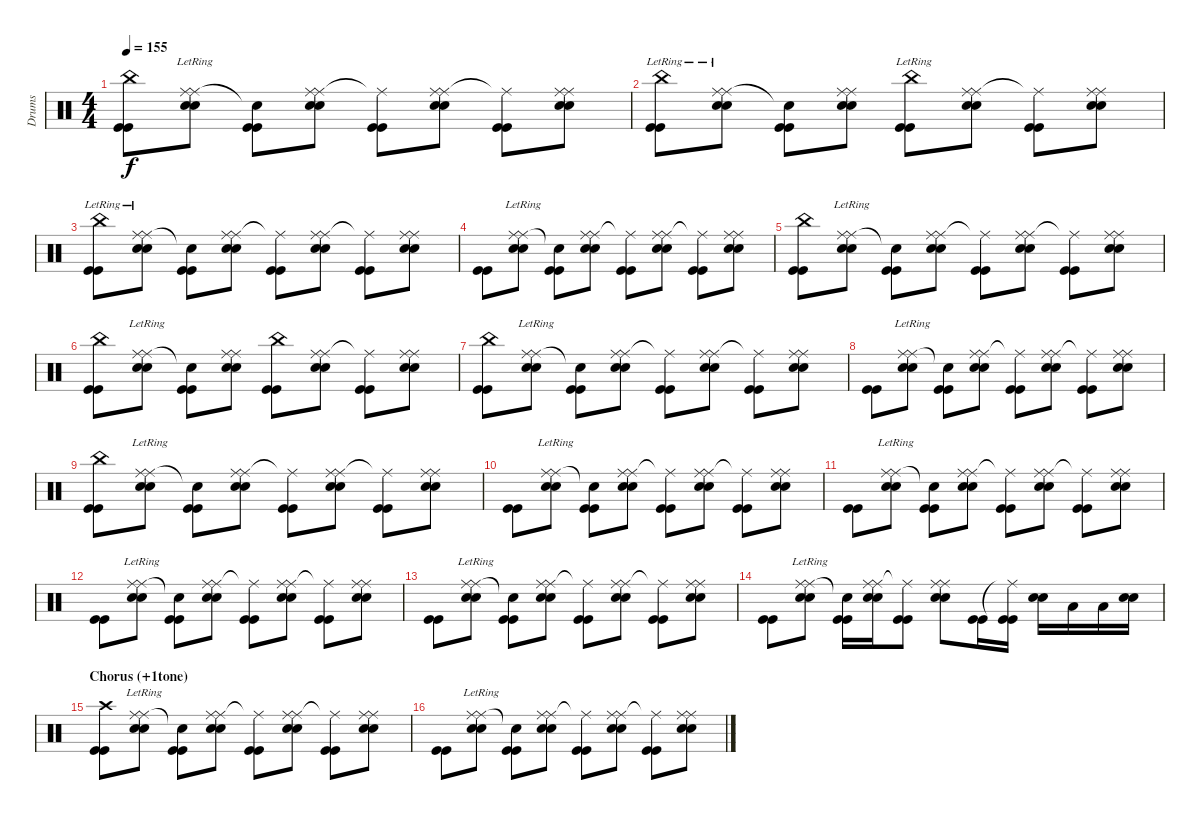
\track ("Drums" "Drums") {instrument percussion}
\staff {score}
\articulation defaults
\ts (4 4)
\tempo 155
\clef neutral
\ks c
("China (hit)" "Kick (hit)" "Kick (hit)").8{dy f} ("Ride (middle)"{lr} "Snare (hit) 2" "Snare (hit) 2" "Ride (middle)").8 ("Snare (hit)"{t} "Kick (hit)" "Kick (hit)").8 ("Ride (middle)" "Snare (hit) 2" "Snare (hit) 2" "Ride (middle)").8 ("Ride (middle)"{t} "Kick (hit)" "Kick (hit)").8 ("Ride (middle)" "Snare (hit) 2" "Snare (hit) 2" "Ride (middle)").8 ("Ride (middle)"{t} "Kick (hit)" "Kick (hit)").8 ("Ride (middle)" "Snare (hit) 2" "Snare (hit) 2" "Ride (middle)").8 |
("China (hit)"{lr} "Kick (hit)" "Kick (hit)").8 ("Ride (middle)"{lr} "Snare (hit) 2" "Snare (hit) 2" "Ride (middle)").8 ("Snare (hit)"{t} "Kick (hit)" "Kick (hit)").8 ("Ride (middle)" "Snare (hit) 2" "Snare (hit) 2" "Ride (middle)").8 ("China (hit)"{lr} "Kick (hit)" "Kick (hit)").8 ("Ride (middle)" "Snare (hit) 2" "Snare (hit) 2" "Ride (middle)").8 ("Ride (middle)"{t} "Kick (hit)" "Kick (hit)").8 ("Ride (middle)" "Snare (hit) 2" "Snare (hit) 2" "Ride (middle)").8 |
("China (hit)"{lr} "Kick (hit)" "Kick (hit)").8 ("Ride (middle)"{lr} "Snare (hit) 2" "Snare (hit) 2" "Ride (middle)").8 ("Snare (hit)"{t} "Kick (hit)" "Kick (hit)").8 ("Ride (middle)" "Snare (hit) 2" "Snare (hit) 2" "Ride (middle)").8 ("Ride (middle)"{t} "Kick (hit)" "Kick (hit)").8 ("Ride (middle)" "Snare (hit) 2" "Snare (hit) 2" "Ride (middle)").8 ("Ride (middle)"{t} "Kick (hit)" "Kick (hit)").8 ("Ride (middle)" "Snare (hit) 2" "Snare (hit) 2" "Ride (middle)").8 |
("Kick (hit)" "Kick (hit)").8 ("Ride (middle)"{lr} "Snare (hit) 2" "Snare (hit) 2" "Ride (middle)").8 ("Snare (hit)"{t} "Kick (hit)" "Kick (hit)").8 ("Ride (middle)" "Snare (hit) 2" "Snare (hit) 2" "Ride (middle)").8 ("Ride (middle)"{t} "Kick (hit)" "Kick (hit)").8 ("Ride (middle)" "Snare (hit) 2" "Snare (hit) 2" "Ride (middle)").8 ("Ride (middle)"{t} "Kick (hit)" "Kick (hit)").8 ("Ride (middle)" "Snare (hit) 2" "Snare (hit) 2" "Ride (middle)").8 |
("China (hit)" "Kick (hit)" "Kick (hit)").8 ("Ride (middle)"{lr} "Snare (hit) 2" "Snare (hit) 2" "Ride (middle)").8 ("Snare (hit)"{t} "Kick (hit)" "Kick (hit)").8 ("Ride (middle)" "Snare (hit) 2" "Snare (hit) 2" "Ride (middle)").8 ("Ride (middle)"{t} "Kick (hit)" "Kick (hit)").8 ("Ride (middle)" "Snare (hit) 2" "Snare (hit) 2" "Ride (middle)").8 ("Ride (middle)"{t} "Kick (hit)" "Kick (hit)").8 ("Ride (middle)" "Snare (hit) 2" "Snare (hit) 2" "Ride (middle)").8 |
("China (hit)" "Kick (hit)" "Kick (hit)").8 ("Ride (middle)"{lr} "Snare (hit) 2" "Snare (hit) 2" "Ride (middle)").8 ("Snare (hit)"{t} "Kick (hit)" "Kick (hit)").8 ("Ride (middle)" "Snare (hit) 2" "Snare (hit) 2" "Ride (middle)").8 ("China (hit)" "Kick (hit)" "Kick (hit)").8 ("Ride (middle)" "Snare (hit) 2" "Snare (hit) 2" "Ride (middle)").8 ("Ride (middle)"{t} "Kick (hit)" "Kick (hit)").8 ("Ride (middle)" "Snare (hit) 2" "Snare (hit) 2" "Ride (middle)").8 |
("China (hit)" "Kick (hit)" "Kick (hit)").8 ("Ride (middle)"{lr} "Snare (hit) 2" "Snare (hit) 2" "Ride (middle)").8 ("Snare (hit)"{t} "Kick (hit)" "Kick (hit)").8 ("Ride (middle)" "Snare (hit) 2" "Snare (hit) 2" "Ride (middle)").8 ("Ride (middle)"{t} "Kick (hit)" "Kick (hit)").8 ("Ride (middle)" "Snare (hit) 2" "Snare (hit) 2" "Ride (middle)").8 ("Ride (middle)"{t} "Kick (hit)" "Kick (hit)").8 ("Ride (middle)" "Snare (hit) 2" "Snare (hit) 2" "Ride (middle)").8 |
("Kick (hit)" "Kick (hit)").8 ("Ride (middle)"{lr} "Snare (hit) 2" "Snare (hit) 2" "Ride (middle)").8 ("Snare (hit)"{t} "Kick (hit)" "Kick (hit)").8 ("Ride (middle)" "Snare (hit) 2" "Snare (hit) 2" "Ride (middle)").8 ("Ride (middle)"{t} "Kick (hit)" "Kick (hit)").8 ("Ride (middle)" "Snare (hit) 2" "Snare (hit) 2" "Ride (middle)").8 ("Ride (middle)"{t} "Kick (hit)" "Kick (hit)").8 ("Ride (middle)" "Snare (hit) 2" "Snare (hit) 2" "Ride (middle)").8 |
("China (hit)" "Kick (hit)" "Kick (hit)").8 ("Ride (middle)"{lr} "Snare (hit) 2" "Snare (hit) 2" "Ride (middle)").8 ("Snare (hit)"{t} "Kick (hit)" "Kick (hit)").8 ("Ride (middle)" "Snare (hit) 2" "Snare (hit) 2" "Ride (middle)").8 ("Ride (middle)"{t} "Kick (hit)" "Kick (hit)").8 ("Ride (middle)" "Snare (hit) 2" "Snare (hit) 2" "Ride (middle)").8 ("Ride (middle)"{t} "Kick (hit)" "Kick (hit)").8 ("Ride (middle)" "Snare (hit) 2" "Snare (hit) 2" "Ride (middle)").8 |
("Kick (hit)" "Kick (hit)").8 ("Ride (middle)"{lr} "Snare (hit) 2" "Snare (hit) 2" "Ride (middle)").8 ("Snare (hit)"{t} "Kick (hit)" "Kick (hit)").8 ("Ride (middle)" "Snare (hit) 2" "Snare (hit) 2" "Ride (middle)").8 ("Ride (middle)"{t} "Kick (hit)" "Kick (hit)").8 ("Ride (middle)" "Snare (hit) 2" "Snare (hit) 2" "Ride (middle)").8 ("Ride (middle)"{t} "Kick (hit)" "Kick (hit)").8 ("Ride (middle)" "Snare (hit) 2" "Snare (hit) 2" "Ride (middle)").8 |
("Kick (hit)" "Kick (hit)").8 ("Ride (middle)"{lr} "Snare (hit) 2" "Snare (hit) 2" "Ride (middle)").8 ("Snare (hit)"{t} "Kick (hit)" "Kick (hit)").8 ("Ride (middle)" "Snare (hit) 2" "Snare (hit) 2" "Ride (middle)").8 ("Ride (middle)"{t} "Kick (hit)" "Kick (hit)").8 ("Ride (middle)" "Snare (hit) 2" "Snare (hit) 2" "Ride (middle)").8 ("Ride (middle)"{t} "Kick (hit)" "Kick (hit)").8 ("Ride (middle)" "Snare (hit) 2" "Snare (hit) 2" "Ride (middle)").8 |
("Kick (hit)" "Kick (hit)").8 ("Ride (middle)"{lr} "Snare (hit) 2" "Snare (hit) 2" "Ride (middle)").8 ("Snare (hit)"{t} "Kick (hit)" "Kick (hit)").8 ("Ride (middle)" "Snare (hit) 2" "Snare (hit) 2" "Ride (middle)").8 ("Ride (middle)"{t} "Kick (hit)" "Kick (hit)").8 ("Ride (middle)" "Snare (hit) 2" "Snare (hit) 2" "Ride (middle)").8 ("Ride (middle)"{t} "Kick (hit)" "Kick (hit)").8 ("Ride (middle)" "Snare (hit) 2" "Snare (hit) 2" "Ride (middle)").8 |
("Kick (hit)" "Kick (hit)").8 ("Ride (middle)"{lr} "Snare (hit) 2" "Snare (hit) 2" "Ride (middle)").8 ("Snare (hit)"{t} "Kick (hit)" "Kick (hit)").8 ("Ride (middle)" "Snare (hit) 2" "Snare (hit) 2" "Ride (middle)").8 ("Ride (middle)"{t} "Kick (hit)" "Kick (hit)").8 ("Ride (middle)" "Snare (hit) 2" "Snare (hit) 2" "Ride (middle)").8 ("Ride (middle)"{t} "Kick (hit)" "Kick (hit)").8 ("Ride (middle)" "Snare (hit) 2" "Snare (hit) 2" "Ride (middle)").8 |
("Kick (hit)" "Kick (hit)").8 ("Ride (middle)"{lr} "Snare (hit) 2" "Snare (hit) 2" "Ride (middle)").8 ("Snare (hit)"{t} "Kick (hit)" "Kick (hit)").16 ("Ride (middle)" "Snare (hit) 2" "Snare (hit) 2" "Ride (middle)").16 ("Ride (middle)"{t} "Kick (hit)" "Kick (hit)").8 ("Ride (middle)" "Snare (hit) 2" "Snare (hit) 2" "Ride (middle)").8 ("Kick (hit)" "Kick (hit)").16 ("Ride (middle)"{t} "Kick (hit)" "Kick (hit)").16 ("Snare (hit) 2" "Snare (hit) 2").16 "Low Tom (hit)".16 "Low Tom (hit)".16 ("Snare (hit) 2" "Snare (hit) 2").16 |
\section ("" "Chorus (+1tone)")
("Crash high (hit)" "Kick (hit)" "Kick (hit)").8 ("Ride (middle)"{lr} "Snare (hit) 2" "Snare (hit) 2" "Ride (middle)").8 ("Snare (hit)"{t} "Kick (hit)" "Kick (hit)").8 ("Ride (middle)" "Snare (hit) 2" "Snare (hit) 2" "Ride (middle)").8 ("Ride (middle)"{t} "Kick (hit)" "Kick (hit)").8 ("Ride (middle)" "Snare (hit) 2" "Snare (hit) 2" "Ride (middle)").8 ("Ride (middle)"{t} "Kick (hit)" "Kick (hit)").8 ("Ride (middle)" "Snare (hit) 2" "Snare (hit) 2" "Ride (middle)").8 |
("Kick (hit)" "Kick (hit)").8 ("Ride (middle)"{lr} "Snare (hit) 2" "Snare (hit) 2" "Ride (middle)").8 ("Snare (hit)"{t} "Kick (hit)" "Kick (hit)").8 ("Ride (middle)" "Snare (hit) 2" "Snare (hit) 2" "Ride (middle)").8 ("Ride (middle)"{t} "Kick (hit)" "Kick (hit)").8 ("Ride (middle)" "Snare (hit) 2" "Snare (hit) 2" "Ride (middle)").8 ("Ride (middle)"{t} "Kick (hit)" "Kick (hit)").8 ("Ride (middle)" "Snare (hit) 2" "Snare (hit) 2" "Ride (middle)").8
